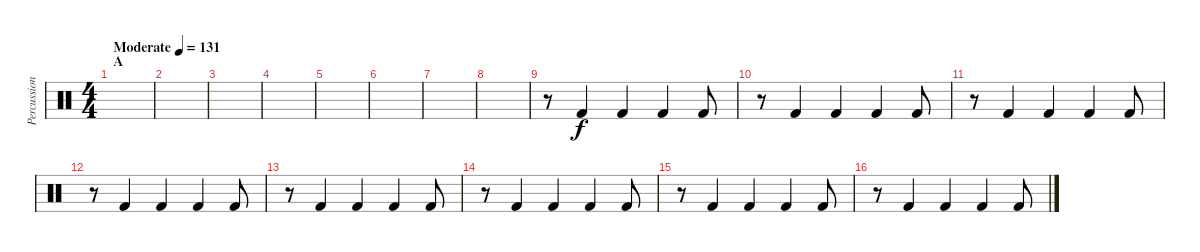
\track ("Percussion" "Percussion") {instrument percussion}
\staff {score}
\articulation defaults
\ts (4 4)
\section ("" "A")
\tempo (131 "Moderate")
\clef neutral
\ks c
|
|
|
|
|
|
|
|
r.8{volume 8} "Kick (hit) 2".4 "Kick (hit) 2".4 "Kick (hit) 2".4 "Kick (hit) 2".8 |
r.8 "Kick (hit) 2".4 "Kick (hit) 2".4 "Kick (hit) 2".4 "Kick (hit) 2".8 |
r.8 "Kick (hit) 2".4 "Kick (hit) 2".4 "Kick (hit) 2".4 "Kick (hit) 2".8 |
r.8 "Kick (hit) 2".4 "Kick (hit) 2".4 "Kick (hit) 2".4 "Kick (hit) 2".8 |
r.8{volume 13} "Kick (hit) 2".4 "Kick (hit) 2".4 "Kick (hit) 2".4 "Kick (hit) 2".8 |
r.8 "Kick (hit) 2".4 "Kick (hit) 2".4 "Kick (hit) 2".4 "Kick (hit) 2".8 |
r.8 "Kick (hit) 2".4 "Kick (hit) 2".4 "Kick (hit) 2".4 "Kick (hit) 2".8 |
r.8 "Kick (hit) 2".4 "Kick (hit) 2".4 "Kick (hit) 2".4 "Kick (hit) 2".8
